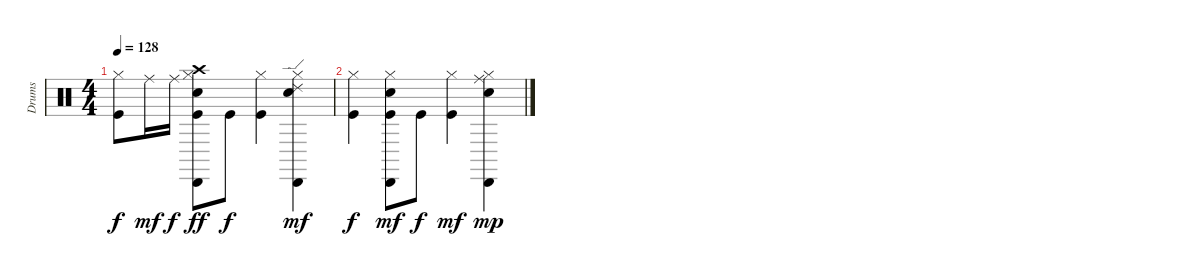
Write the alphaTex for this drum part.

\track ("Drums               " "Drums     ") {instrument percussion}
\staff {score}
\articulation defaults
\ts (4 4)
\tempo 128
\clef neutral
\ks c
("Hi-Hat (closed)" "Kick (hit)").8{dy f volume 3} "Ride (middle)".16{dy mf} "Ride (middle)".16{dy f} ("Crash high (hit)" "Hi-Hat (closed)" "Cabasa (hit)" "Snare (hit) 2" "Kick (hit)").8{dy ff} "Kick (hit)".8{dy f} ("Hi-Hat (closed)" "Kick (hit)").4 ("Cabasa (hit)" "Hi-Hat (closed)" "Ride (edge) 2" "Snare (hit) 2").4{dy mf} |
("Hi-Hat (closed)" "Kick (hit)").4{dy f volume 1} ("Hi-Hat (closed)" "Cabasa (hit)" "Snare (hit) 2" "Kick (hit)").8{dy mf} "Kick (hit)".8{dy f} ("Hi-Hat (closed)" "Kick (hit)").4{dy mf} ("Ride (middle)" "Cabasa (hit)" "Hi-Hat (closed)" "Snare (hit) 2").4{dy mp}
